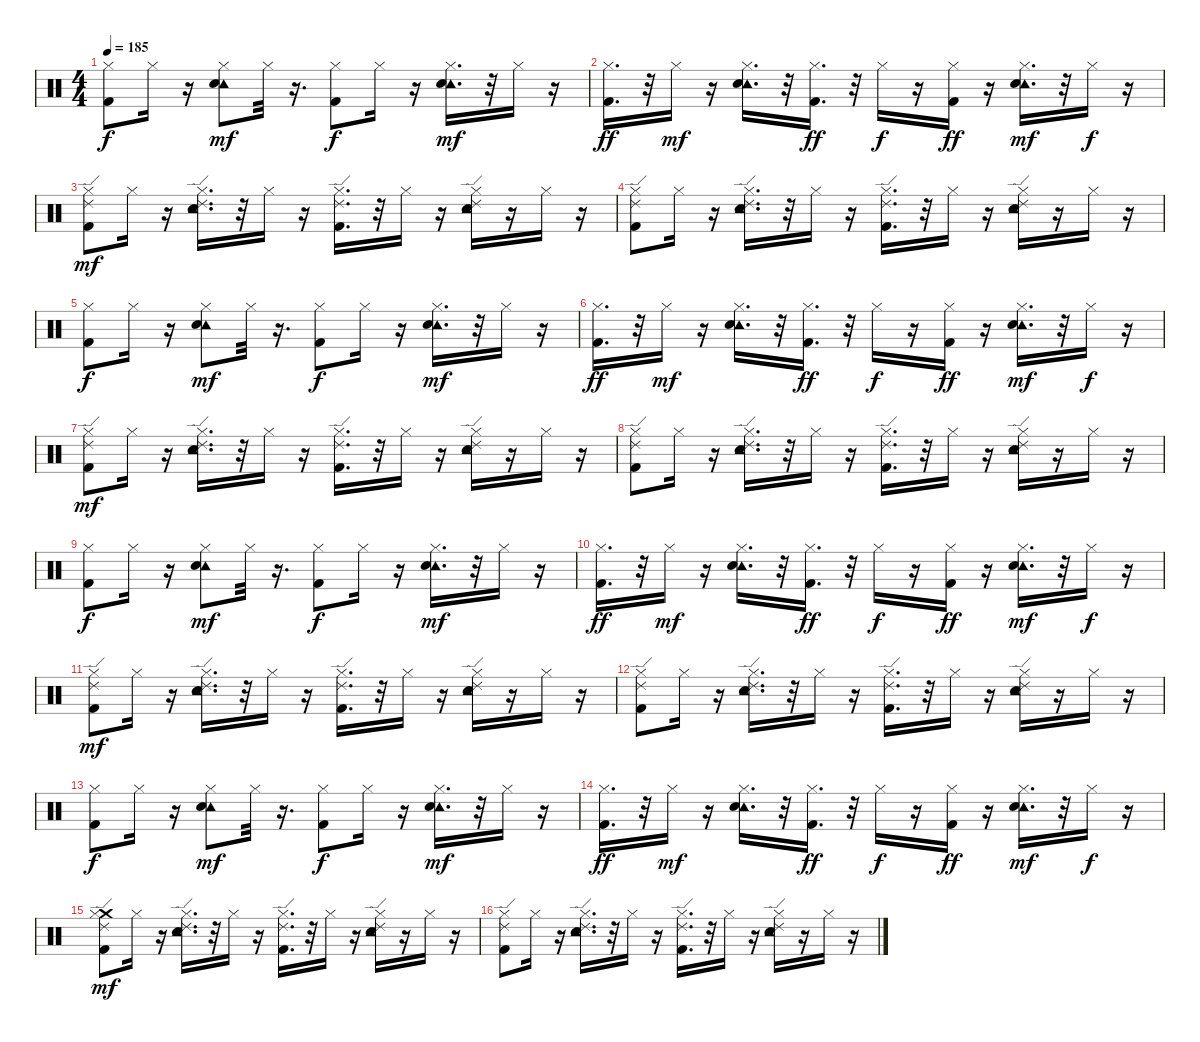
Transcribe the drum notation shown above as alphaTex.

\track "" {instrument percussion}
\staff {score}
\articulation defaults
\ts (4 4)
\tempo 185
\clef neutral
\ks c
("Hi-Hat (closed)" "Kick (hit) 2").8{dy f} "Hi-Hat (closed)".16 r.16 ("Tambourine (hit)" "Hi-Hat (closed)" "Snare (hit) 2").8{dy mf} "Hi-Hat (closed)".32 r.16{d} ("Hi-Hat (closed)" "Kick (hit) 2").8{dy f} "Hi-Hat (closed)".16 r.16 ("Tambourine (hit)" "Hi-Hat (closed)" "Snare (hit) 2").16{d dy mf} r.32 "Hi-Hat (closed)".16 r.16 |
("Hi-Hat (closed)" "Kick (hit) 2").16{d dy ff} r.32 "Hi-Hat (closed)".16{dy mf} r.16 ("Tambourine (hit)" "Hi-Hat (closed)" "Snare (hit) 2").16{d} r.32 ("Hi-Hat (closed)" "Kick (hit) 2").16{d dy ff} r.32 "Hi-Hat (closed)".16{dy f} r.16 ("Hi-Hat (closed)" "Kick (hit) 2").16{dy ff} r.16 ("Tambourine (hit)" "Hi-Hat (closed)" "Snare (hit) 2").16{d dy mf} r.32 "Hi-Hat (closed)".16{dy f} r.16 |
("Ride (edge) 2" "Hi-Hat (closed)" "Kick (hit) 2").8{dy mf} "Hi-Hat (closed)".16 r.16 ("Ride (edge) 2" "Hi-Hat (closed)" "Tambourine (hit)" "Snare (hit) 2").16{d} r.32 "Hi-Hat (closed)".16 r.16 ("Ride (edge) 2" "Hi-Hat (closed)" "Kick (hit) 2").16{d} r.32 "Hi-Hat (closed)".16 r.16 ("Ride (edge) 2" "Hi-Hat (closed)" "Tambourine (hit)" "Snare (hit) 2").16 r.16 "Hi-Hat (closed)".16 r.16 |
("Ride (edge) 2" "Hi-Hat (closed)" "Kick (hit) 2").8 "Hi-Hat (closed)".16 r.16 ("Ride (edge) 2" "Hi-Hat (closed)" "Tambourine (hit)" "Snare (hit) 2").16{d} r.32 "Hi-Hat (closed)".16 r.16 ("Ride (edge) 2" "Hi-Hat (closed)" "Kick (hit) 2").16{d} r.32 "Hi-Hat (closed)".16 r.16 ("Ride (edge) 2" "Hi-Hat (closed)" "Tambourine (hit)" "Snare (hit) 2").16 r.16 "Hi-Hat (closed)".16 r.16 |
("Hi-Hat (closed)" "Kick (hit) 2").8{dy f} "Hi-Hat (closed)".16 r.16 ("Tambourine (hit)" "Hi-Hat (closed)" "Snare (hit) 2").8{dy mf} "Hi-Hat (closed)".32 r.16{d} ("Hi-Hat (closed)" "Kick (hit) 2").8{dy f} "Hi-Hat (closed)".16 r.16 ("Tambourine (hit)" "Hi-Hat (closed)" "Snare (hit) 2").16{d dy mf} r.32 "Hi-Hat (closed)".16 r.16 |
("Hi-Hat (closed)" "Kick (hit) 2").16{d dy ff} r.32 "Hi-Hat (closed)".16{dy mf} r.16 ("Tambourine (hit)" "Hi-Hat (closed)" "Snare (hit) 2").16{d} r.32 ("Hi-Hat (closed)" "Kick (hit) 2").16{d dy ff} r.32 "Hi-Hat (closed)".16{dy f} r.16 ("Hi-Hat (closed)" "Kick (hit) 2").16{dy ff} r.16 ("Tambourine (hit)" "Hi-Hat (closed)" "Snare (hit) 2").16{d dy mf} r.32 "Hi-Hat (closed)".16{dy f} r.16 |
("Ride (edge) 2" "Hi-Hat (closed)" "Kick (hit) 2").8{dy mf} "Hi-Hat (closed)".16 r.16 ("Ride (edge) 2" "Hi-Hat (closed)" "Tambourine (hit)" "Snare (hit) 2").16{d} r.32 "Hi-Hat (closed)".16 r.16 ("Ride (edge) 2" "Hi-Hat (closed)" "Kick (hit) 2").16{d} r.32 "Hi-Hat (closed)".16 r.16 ("Ride (edge) 2" "Hi-Hat (closed)" "Tambourine (hit)" "Snare (hit) 2").16 r.16 "Hi-Hat (closed)".16 r.16 |
("Ride (edge) 2" "Hi-Hat (closed)" "Kick (hit) 2").8 "Hi-Hat (closed)".16 r.16 ("Ride (edge) 2" "Hi-Hat (closed)" "Tambourine (hit)" "Snare (hit) 2").16{d} r.32 "Hi-Hat (closed)".16 r.16 ("Ride (edge) 2" "Hi-Hat (closed)" "Kick (hit) 2").16{d} r.32 "Hi-Hat (closed)".16 r.16 ("Ride (edge) 2" "Hi-Hat (closed)" "Tambourine (hit)" "Snare (hit) 2").16 r.16 "Hi-Hat (closed)".16 r.16 |
("Hi-Hat (closed)" "Kick (hit) 2").8{dy f} "Hi-Hat (closed)".16 r.16 ("Tambourine (hit)" "Hi-Hat (closed)" "Snare (hit) 2").8{dy mf} "Hi-Hat (closed)".32 r.16{d} ("Hi-Hat (closed)" "Kick (hit) 2").8{dy f} "Hi-Hat (closed)".16 r.16 ("Tambourine (hit)" "Hi-Hat (closed)" "Snare (hit) 2").16{d dy mf} r.32 "Hi-Hat (closed)".16 r.16 |
("Hi-Hat (closed)" "Kick (hit) 2").16{d dy ff} r.32 "Hi-Hat (closed)".16{dy mf} r.16 ("Tambourine (hit)" "Hi-Hat (closed)" "Snare (hit) 2").16{d} r.32 ("Hi-Hat (closed)" "Kick (hit) 2").16{d dy ff} r.32 "Hi-Hat (closed)".16{dy f} r.16 ("Hi-Hat (closed)" "Kick (hit) 2").16{dy ff} r.16 ("Tambourine (hit)" "Hi-Hat (closed)" "Snare (hit) 2").16{d dy mf} r.32 "Hi-Hat (closed)".16{dy f} r.16 |
("Ride (edge) 2" "Hi-Hat (closed)" "Kick (hit) 2").8{dy mf} "Hi-Hat (closed)".16 r.16 ("Ride (edge) 2" "Hi-Hat (closed)" "Tambourine (hit)" "Snare (hit) 2").16{d} r.32 "Hi-Hat (closed)".16 r.16 ("Ride (edge) 2" "Hi-Hat (closed)" "Kick (hit) 2").16{d} r.32 "Hi-Hat (closed)".16 r.16 ("Ride (edge) 2" "Hi-Hat (closed)" "Tambourine (hit)" "Snare (hit) 2").16 r.16 "Hi-Hat (closed)".16 r.16 |
("Ride (edge) 2" "Hi-Hat (closed)" "Kick (hit) 2").8 "Hi-Hat (closed)".16 r.16 ("Ride (edge) 2" "Hi-Hat (closed)" "Tambourine (hit)" "Snare (hit) 2").16{d} r.32 "Hi-Hat (closed)".16 r.16 ("Ride (edge) 2" "Hi-Hat (closed)" "Kick (hit) 2").16{d} r.32 "Hi-Hat (closed)".16 r.16 ("Ride (edge) 2" "Hi-Hat (closed)" "Tambourine (hit)" "Snare (hit) 2").16 r.16 "Hi-Hat (closed)".16 r.16 |
("Hi-Hat (closed)" "Kick (hit) 2").8{dy f} "Hi-Hat (closed)".16 r.16 ("Tambourine (hit)" "Hi-Hat (closed)" "Snare (hit) 2").8{dy mf} "Hi-Hat (closed)".32 r.16{d} ("Hi-Hat (closed)" "Kick (hit) 2").8{dy f} "Hi-Hat (closed)".16 r.16 ("Tambourine (hit)" "Hi-Hat (closed)" "Snare (hit) 2").16{d dy mf} r.32 "Hi-Hat (closed)".16 r.16 |
("Hi-Hat (closed)" "Kick (hit) 2").16{d dy ff} r.32 "Hi-Hat (closed)".16{dy mf} r.16 ("Tambourine (hit)" "Hi-Hat (closed)" "Snare (hit) 2").16{d} r.32 ("Hi-Hat (closed)" "Kick (hit) 2").16{d dy ff} r.32 "Hi-Hat (closed)".16{dy f} r.16 ("Hi-Hat (closed)" "Kick (hit) 2").16{dy ff} r.16 ("Tambourine (hit)" "Hi-Hat (closed)" "Snare (hit) 2").16{d dy mf} r.32 "Hi-Hat (closed)".16{dy f} r.16 |
("Crash medium (hit)" "Ride (edge) 2" "Hi-Hat (closed)" "Kick (hit) 2").8{dy mf} "Hi-Hat (closed)".16 r.16 ("Ride (edge) 2" "Hi-Hat (closed)" "Tambourine (hit)" "Snare (hit) 2").16{d} r.32 "Hi-Hat (closed)".16 r.16 ("Ride (edge) 2" "Hi-Hat (closed)" "Kick (hit) 2").16{d} r.32 "Hi-Hat (closed)".16 r.16 ("Ride (edge) 2" "Hi-Hat (closed)" "Tambourine (hit)" "Snare (hit) 2").16 r.16 "Hi-Hat (closed)".16 r.16 |
("Ride (edge) 2" "Hi-Hat (closed)" "Kick (hit) 2").8 "Hi-Hat (closed)".16 r.16 ("Ride (edge) 2" "Hi-Hat (closed)" "Tambourine (hit)" "Snare (hit) 2").16{d} r.32 "Hi-Hat (closed)".16 r.16 ("Ride (edge) 2" "Hi-Hat (closed)" "Kick (hit) 2").16{d} r.32 "Hi-Hat (closed)".16 r.16 ("Ride (edge) 2" "Hi-Hat (closed)" "Tambourine (hit)" "Snare (hit) 2").16 r.16 "Hi-Hat (closed)".16 r.16
